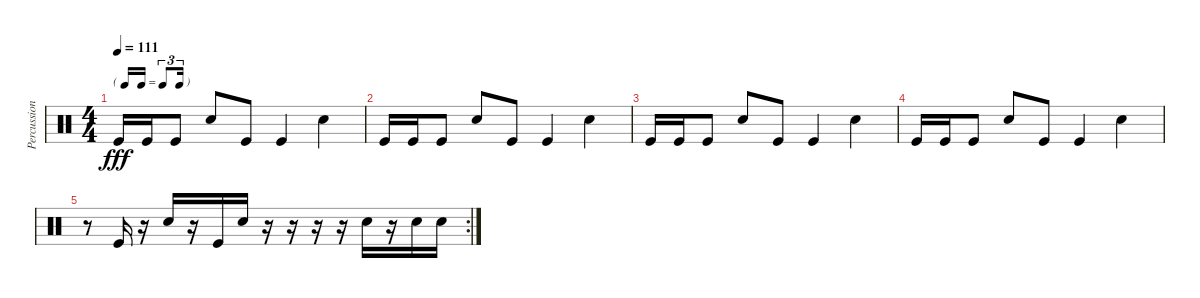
\track ("Percussions" "Percussion") {instrument percussion}
\staff {score}
\articulation defaults
\ts (4 4)
\tf triplet16th
\tempo 111
\clef neutral
\ks c "Kick (hit)".16{dy fff} "Kick (hit)".16 "Kick (hit)".8 "Electric Snare (hit)".8 "Kick (hit)".8 "Kick (hit)".4 "Electric Snare (hit)".4
|
"Kick (hit)".16 "Kick (hit)".16 "Kick (hit)".8 "Electric Snare (hit)".8 "Kick (hit)".8 "Kick (hit)".4 "Electric Snare (hit)".4 |
"Kick (hit)".16 "Kick (hit)".16 "Kick (hit)".8 "Electric Snare (hit)".8 "Kick (hit)".8 "Kick (hit)".4 "Electric Snare (hit)".4 |
"Kick (hit)".16 "Kick (hit)".16 "Kick (hit)".8 "Electric Snare (hit)".8 "Kick (hit)".8 "Kick (hit)".4 "Electric Snare (hit)".4 |
\rc 2
r.8 "Kick (hit)".16 r.16 "Electric Snare (hit)".16 r.16 "Kick (hit)".16 "Electric Snare (hit)".16 r.16 r.16 r.16 r.16 "Electric Snare (hit)".16 r.16 "Electric Snare (hit)".16 "Electric Snare (hit)".16
